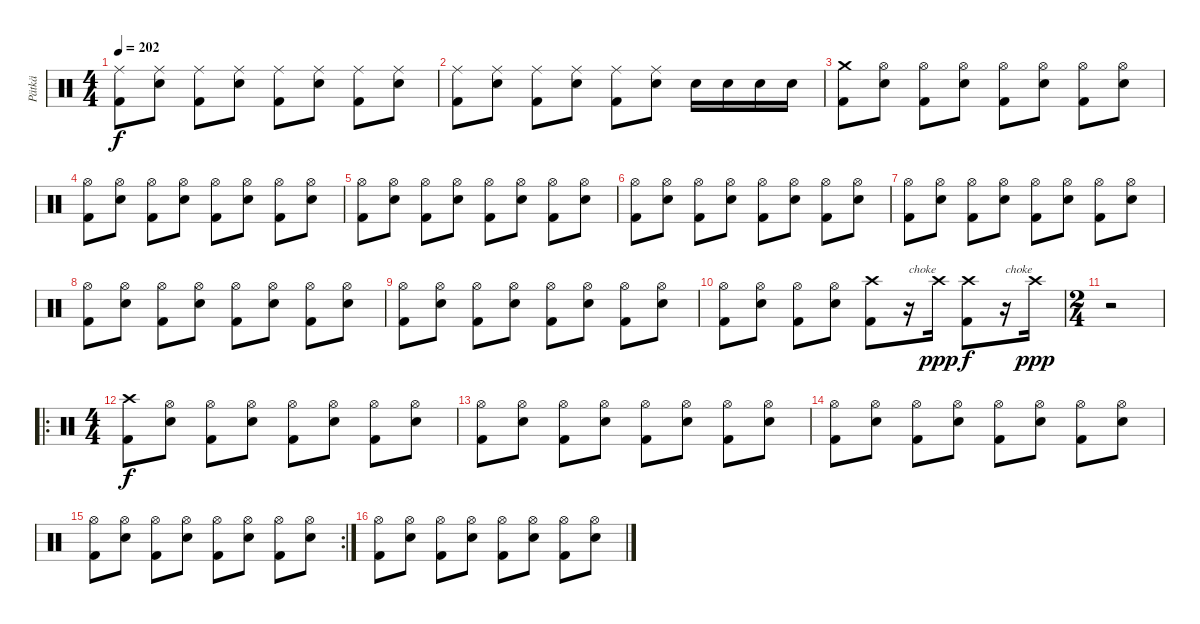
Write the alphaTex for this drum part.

\track ("Pätkä" "Pätkä") {instrument percussion}
\staff {score}
\articulation defaults
\ts (4 4)
\tempo 202
\clef neutral
\ks c
("Ride (middle)" "Kick (hit) 2").8{dy f} ("Ride (middle)" "Electric Snare (hit)").8 ("Ride (middle)" "Kick (hit) 2").8 ("Ride (middle)" "Electric Snare (hit)").8 ("Ride (middle)" "Kick (hit) 2").8 ("Ride (middle)" "Electric Snare (hit)").8 ("Ride (middle)" "Kick (hit) 2").8 ("Ride (middle)" "Electric Snare (hit)").8 |
("Ride (middle)" "Kick (hit) 2").8 ("Ride (middle)" "Electric Snare (hit)").8 ("Ride (middle)" "Kick (hit) 2").8 ("Ride (middle)" "Electric Snare (hit)").8 ("Ride (middle)" "Kick (hit) 2").8 ("Ride (middle)" "Electric Snare (hit)").8 "Electric Snare (hit)".16 "Electric Snare (hit)".16 "Electric Snare (hit)".16 "Electric Snare (hit)".16 |
("Crash medium (hit)" "Kick (hit) 2").8 ("Hi-Hat (open)" "Electric Snare (hit)").8 ("Hi-Hat (open)" "Kick (hit) 2").8 ("Hi-Hat (open)" "Electric Snare (hit)").8 ("Hi-Hat (open)" "Kick (hit) 2").8 ("Hi-Hat (open)" "Electric Snare (hit)").8 ("Hi-Hat (open)" "Kick (hit) 2").8 ("Hi-Hat (open)" "Electric Snare (hit)").8 |
("Hi-Hat (open)" "Kick (hit) 2").8 ("Hi-Hat (open)" "Electric Snare (hit)").8 ("Hi-Hat (open)" "Kick (hit) 2").8 ("Hi-Hat (open)" "Electric Snare (hit)").8 ("Hi-Hat (open)" "Kick (hit) 2").8 ("Hi-Hat (open)" "Electric Snare (hit)").8 ("Hi-Hat (open)" "Kick (hit) 2").8 ("Hi-Hat (open)" "Electric Snare (hit)").8 |
("Hi-Hat (open)" "Kick (hit) 2").8 ("Hi-Hat (open)" "Electric Snare (hit)").8 ("Hi-Hat (open)" "Kick (hit) 2").8 ("Hi-Hat (open)" "Electric Snare (hit)").8 ("Hi-Hat (open)" "Kick (hit) 2").8 ("Hi-Hat (open)" "Electric Snare (hit)").8 ("Hi-Hat (open)" "Kick (hit) 2").8 ("Hi-Hat (open)" "Electric Snare (hit)").8 |
("Hi-Hat (open)" "Kick (hit) 2").8 ("Hi-Hat (open)" "Electric Snare (hit)").8 ("Hi-Hat (open)" "Kick (hit) 2").8 ("Hi-Hat (open)" "Electric Snare (hit)").8 ("Hi-Hat (open)" "Kick (hit) 2").8 ("Hi-Hat (open)" "Electric Snare (hit)").8 ("Hi-Hat (open)" "Kick (hit) 2").8 ("Hi-Hat (open)" "Electric Snare (hit)").8 |
("Hi-Hat (open)" "Kick (hit) 2").8 ("Hi-Hat (open)" "Electric Snare (hit)").8 ("Hi-Hat (open)" "Kick (hit) 2").8 ("Hi-Hat (open)" "Electric Snare (hit)").8 ("Hi-Hat (open)" "Kick (hit) 2").8 ("Hi-Hat (open)" "Electric Snare (hit)").8 ("Hi-Hat (open)" "Kick (hit) 2").8 ("Hi-Hat (open)" "Electric Snare (hit)").8 |
("Hi-Hat (open)" "Kick (hit) 2").8 ("Hi-Hat (open)" "Electric Snare (hit)").8 ("Hi-Hat (open)" "Kick (hit) 2").8 ("Hi-Hat (open)" "Electric Snare (hit)").8 ("Hi-Hat (open)" "Kick (hit) 2").8 ("Hi-Hat (open)" "Electric Snare (hit)").8 ("Hi-Hat (open)" "Kick (hit) 2").8 ("Hi-Hat (open)" "Electric Snare (hit)").8 |
("Hi-Hat (open)" "Kick (hit) 2").8 ("Hi-Hat (open)" "Electric Snare (hit)").8 ("Hi-Hat (open)" "Kick (hit) 2").8 ("Hi-Hat (open)" "Electric Snare (hit)").8 ("Hi-Hat (open)" "Kick (hit) 2").8 ("Hi-Hat (open)" "Electric Snare (hit)").8 ("Hi-Hat (open)" "Kick (hit) 2").8 ("Hi-Hat (open)" "Electric Snare (hit)").8 |
("Hi-Hat (open)" "Kick (hit) 2").8 ("Hi-Hat (open)" "Electric Snare (hit)").8 ("Hi-Hat (open)" "Kick (hit) 2").8 ("Hi-Hat (open)" "Electric Snare (hit)").8 ("Crash high (hit)" "Kick (hit) 2").8 r.16{txt "choke"} "Crash high (hit)".16{dy ppp} ("Crash high (hit)" "Kick (hit) 2").8{dy f} r.16{txt "choke"} "Crash high (hit)".16{dy ppp} |
\ts (2 4)
r.2 |
\ro
\ts (4 4)
("Crash high (hit)" "Kick (hit) 2").8{dy f} ("Hi-Hat (open)" "Electric Snare (hit)").8 ("Hi-Hat (open)" "Kick (hit) 2").8 ("Hi-Hat (open)" "Electric Snare (hit)").8 ("Hi-Hat (open)" "Kick (hit) 2").8 ("Hi-Hat (open)" "Electric Snare (hit)").8 ("Hi-Hat (open)" "Kick (hit) 2").8 ("Hi-Hat (open)" "Electric Snare (hit)").8 |
("Hi-Hat (open)" "Kick (hit) 2").8 ("Hi-Hat (open)" "Electric Snare (hit)").8 ("Hi-Hat (open)" "Kick (hit) 2").8 ("Hi-Hat (open)" "Electric Snare (hit)").8 ("Hi-Hat (open)" "Kick (hit) 2").8 ("Hi-Hat (open)" "Electric Snare (hit)").8 ("Hi-Hat (open)" "Kick (hit) 2").8 ("Hi-Hat (open)" "Electric Snare (hit)").8 |
("Hi-Hat (open)" "Kick (hit) 2").8 ("Hi-Hat (open)" "Electric Snare (hit)").8 ("Hi-Hat (open)" "Kick (hit) 2").8 ("Hi-Hat (open)" "Electric Snare (hit)").8 ("Hi-Hat (open)" "Kick (hit) 2").8 ("Hi-Hat (open)" "Electric Snare (hit)").8 ("Hi-Hat (open)" "Kick (hit) 2").8 ("Hi-Hat (open)" "Electric Snare (hit)").8 |
\rc 2
("Hi-Hat (open)" "Kick (hit) 2").8 ("Hi-Hat (open)" "Electric Snare (hit)").8 ("Hi-Hat (open)" "Kick (hit) 2").8 ("Hi-Hat (open)" "Electric Snare (hit)").8 ("Hi-Hat (open)" "Kick (hit) 2").8 ("Hi-Hat (open)" "Electric Snare (hit)").8 ("Hi-Hat (open)" "Kick (hit) 2").8 ("Hi-Hat (open)" "Electric Snare (hit)").8 |
("Hi-Hat (open)" "Kick (hit) 2").8 ("Hi-Hat (open)" "Electric Snare (hit)").8 ("Hi-Hat (open)" "Kick (hit) 2").8 ("Hi-Hat (open)" "Electric Snare (hit)").8 ("Hi-Hat (open)" "Kick (hit) 2").8 ("Hi-Hat (open)" "Electric Snare (hit)").8 ("Hi-Hat (open)" "Kick (hit) 2").8 ("Hi-Hat (open)" "Electric Snare (hit)").8
